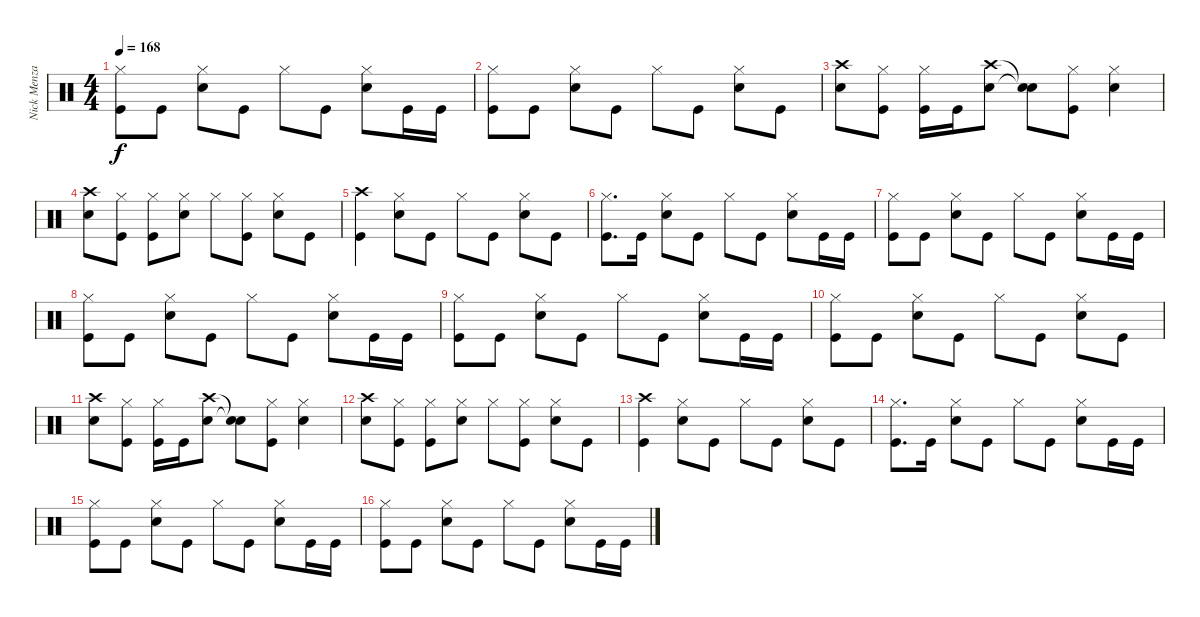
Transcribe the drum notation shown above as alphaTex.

\track ("Nick Menza" "Nick Menza") {instrument percussion}
\staff {score}
\articulation defaults
\ts (4 4)
\tempo 168
\clef neutral
\ks c
("Kick (hit)" "Hi-Hat (closed)").8{dy f} "Kick (hit)".8 ("Hi-Hat (closed)" "Snare (hit) 2").8 "Kick (hit)".8 "Hi-Hat (closed)".8 "Kick (hit)".8 ("Hi-Hat (closed)" "Snare (hit) 2").8 "Kick (hit)".16 "Kick (hit)".16 |
("Kick (hit)" "Hi-Hat (closed)").8 "Kick (hit)".8 ("Hi-Hat (closed)" "Snare (hit) 2").8 "Kick (hit)".8 "Hi-Hat (closed)".8 "Kick (hit)".8 ("Hi-Hat (closed)" "Snare (hit) 2").8 "Kick (hit)".8 |
("Snare (hit) 2" "Crash high (hit)").8 ("Kick (hit)" "Hi-Hat (closed)").8 ("Kick (hit)" "Hi-Hat (closed)").16 "Kick (hit)".16 ("Snare (hit) 2" "Crash high (hit)").8 ("Snare (hit)"{t} "Snare (hit)"{t}).8 ("Kick (hit)" "Hi-Hat (closed)").8 ("Hi-Hat (closed)" "Snare (hit) 2").4 |
("Crash high (hit)" "Snare (hit) 2").8 ("Kick (hit)" "Hi-Hat (closed)").8 ("Kick (hit)" "Hi-Hat (closed)").8 ("Hi-Hat (closed)" "Snare (hit) 2").8 "Hi-Hat (closed)".8 ("Kick (hit)" "Hi-Hat (closed)").8 ("Hi-Hat (closed)" "Snare (hit) 2").8 "Kick (hit)".8 |
("Kick (hit)" "Crash high (hit)").4 ("Hi-Hat (closed)" "Snare (hit) 2").8 "Kick (hit)".8 "Hi-Hat (closed)".8 "Kick (hit)".8 ("Hi-Hat (closed)" "Snare (hit) 2").8 "Kick (hit)".8 |
("Kick (hit)" "Hi-Hat (closed)").8{d} "Kick (hit)".16 ("Hi-Hat (closed)" "Snare (hit) 2").8 "Kick (hit)".8 "Hi-Hat (closed)".8 "Kick (hit)".8 ("Hi-Hat (closed)" "Snare (hit) 2").8 "Kick (hit)".16 "Kick (hit)".16 |
("Kick (hit)" "Hi-Hat (closed)").8 "Kick (hit)".8 ("Hi-Hat (closed)" "Snare (hit) 2").8 "Kick (hit)".8 "Hi-Hat (closed)".8 "Kick (hit)".8 ("Hi-Hat (closed)" "Snare (hit) 2").8 "Kick (hit)".16 "Kick (hit)".16 |
("Kick (hit)" "Hi-Hat (closed)").8 "Kick (hit)".8 ("Hi-Hat (closed)" "Snare (hit) 2").8 "Kick (hit)".8 "Hi-Hat (closed)".8 "Kick (hit)".8 ("Hi-Hat (closed)" "Snare (hit) 2").8 "Kick (hit)".16 "Kick (hit)".16 |
("Kick (hit)" "Hi-Hat (closed)").8 "Kick (hit)".8 ("Hi-Hat (closed)" "Snare (hit) 2").8 "Kick (hit)".8 "Hi-Hat (closed)".8 "Kick (hit)".8 ("Hi-Hat (closed)" "Snare (hit) 2").8 "Kick (hit)".16 "Kick (hit)".16 |
("Kick (hit)" "Hi-Hat (closed)").8 "Kick (hit)".8 ("Hi-Hat (closed)" "Snare (hit) 2").8 "Kick (hit)".8 "Hi-Hat (closed)".8 "Kick (hit)".8 ("Hi-Hat (closed)" "Snare (hit) 2").8 "Kick (hit)".8 |
("Snare (hit) 2" "Crash high (hit)").8 ("Kick (hit)" "Hi-Hat (closed)").8 ("Kick (hit)" "Hi-Hat (closed)").16 "Kick (hit)".16 ("Snare (hit) 2" "Crash high (hit)").8 ("Snare (hit)"{t} "Snare (hit)"{t}).8 ("Kick (hit)" "Hi-Hat (closed)").8 ("Hi-Hat (closed)" "Snare (hit) 2").4 |
("Crash high (hit)" "Snare (hit) 2").8 ("Kick (hit)" "Hi-Hat (closed)").8 ("Kick (hit)" "Hi-Hat (closed)").8 ("Hi-Hat (closed)" "Snare (hit) 2").8 "Hi-Hat (closed)".8 ("Kick (hit)" "Hi-Hat (closed)").8 ("Hi-Hat (closed)" "Snare (hit) 2").8 "Kick (hit)".8 |
("Kick (hit)" "Crash high (hit)").4 ("Hi-Hat (closed)" "Snare (hit) 2").8 "Kick (hit)".8 "Hi-Hat (closed)".8 "Kick (hit)".8 ("Hi-Hat (closed)" "Snare (hit) 2").8 "Kick (hit)".8 |
("Kick (hit)" "Hi-Hat (closed)").8{d} "Kick (hit)".16 ("Hi-Hat (closed)" "Snare (hit) 2").8 "Kick (hit)".8 "Hi-Hat (closed)".8 "Kick (hit)".8 ("Hi-Hat (closed)" "Snare (hit) 2").8 "Kick (hit)".16 "Kick (hit)".16 |
("Kick (hit)" "Hi-Hat (closed)").8 "Kick (hit)".8 ("Hi-Hat (closed)" "Snare (hit) 2").8 "Kick (hit)".8 "Hi-Hat (closed)".8 "Kick (hit)".8 ("Hi-Hat (closed)" "Snare (hit) 2").8 "Kick (hit)".16 "Kick (hit)".16 |
("Kick (hit)" "Hi-Hat (closed)").8 "Kick (hit)".8 ("Hi-Hat (closed)" "Snare (hit) 2").8 "Kick (hit)".8 "Hi-Hat (closed)".8 "Kick (hit)".8 ("Hi-Hat (closed)" "Snare (hit) 2").8 "Kick (hit)".16 "Kick (hit)".16
